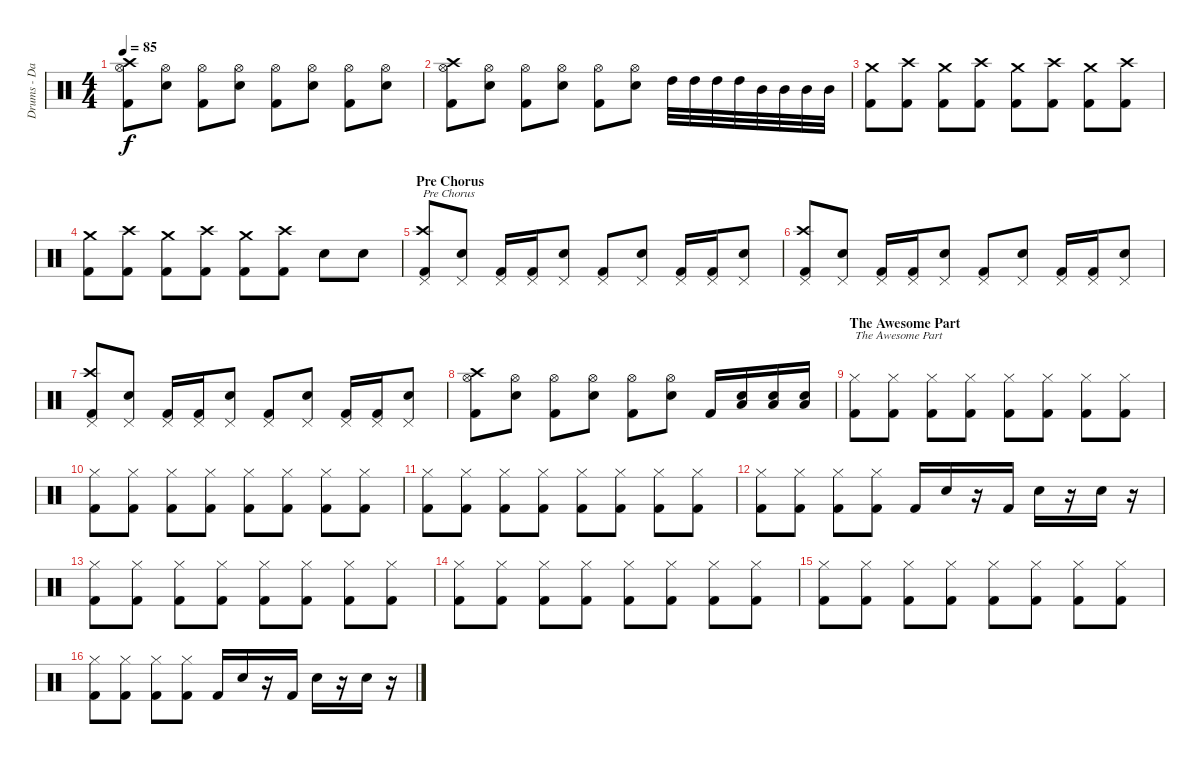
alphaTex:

\track ("Drums - Daniel Zimmermann" "Drums - Da") {instrument percussion}
\staff {score}
\articulation defaults
\ts (4 4)
\tempo 85
\clef neutral
\ks c
("Hi-Hat (open)" "Kick (hit) 2" "Crash high (hit)").8{dy f} ("Hi-Hat (open)" "Snare (hit) 2").8 ("Hi-Hat (open)" "Kick (hit) 2").8 ("Hi-Hat (open)" "Snare (hit) 2").8 ("Hi-Hat (open)" "Kick (hit) 2").8 ("Hi-Hat (open)" "Snare (hit) 2").8 ("Hi-Hat (open)" "Kick (hit) 2").8 ("Hi-Hat (open)" "Snare (hit) 2").8 |
("Hi-Hat (open)" "Kick (hit) 2" "Crash high (hit)").8 ("Hi-Hat (open)" "Snare (hit) 2").8 ("Hi-Hat (open)" "Kick (hit) 2").8 ("Hi-Hat (open)" "Snare (hit) 2").8 ("Hi-Hat (open)" "Kick (hit) 2").8 ("Hi-Hat (open)" "Snare (hit) 2").8 "High Tom (hit)".32 "High Tom (hit)".32 "High Tom (hit)".32 "High Tom (hit)".32 "Mid Tom (hit)".32 "Mid Tom (hit)".32 "Mid Tom (hit)".32 "Mid Tom (hit)".32 |
("Kick (hit) 2" "Crash medium (hit)").8 ("Kick (hit) 2" "Crash high (hit)").8 ("Kick (hit) 2" "Crash medium (hit)").8 ("Kick (hit) 2" "Crash high (hit)").8 ("Kick (hit) 2" "Crash medium (hit)").8 ("Kick (hit) 2" "Crash high (hit)").8 ("Kick (hit) 2" "Crash medium (hit)").8 ("Kick (hit) 2" "Crash high (hit)").8 |
("Kick (hit) 2" "Crash medium (hit)").8 ("Kick (hit) 2" "Crash high (hit)").8 ("Kick (hit) 2" "Crash medium (hit)").8 ("Kick (hit) 2" "Crash high (hit)").8 ("Kick (hit) 2" "Crash medium (hit)").8 ("Kick (hit) 2" "Crash high (hit)").8 "Snare (hit) 2".8 "Snare (hit) 2".8 |
\section ("" "Pre Chorus")
("Pedal Hi-Hat (hit)" "Kick (hit) 2" "Crash high (hit)").8{txt "Pre Chorus"} ("Pedal Hi-Hat (hit)" "Snare (hit) 2").8 ("Pedal Hi-Hat (hit)" "Kick (hit) 2").16 ("Pedal Hi-Hat (hit)" "Kick (hit) 2").16 ("Pedal Hi-Hat (hit)" "Snare (hit) 2").8 ("Pedal Hi-Hat (hit)" "Kick (hit) 2").8 ("Pedal Hi-Hat (hit)" "Snare (hit) 2").8 ("Pedal Hi-Hat (hit)" "Kick (hit) 2").16 ("Pedal Hi-Hat (hit)" "Kick (hit) 2").16 ("Pedal Hi-Hat (hit)" "Snare (hit) 2").8 |
("Pedal Hi-Hat (hit)" "Kick (hit) 2" "Crash high (hit)").8 ("Pedal Hi-Hat (hit)" "Snare (hit) 2").8 ("Pedal Hi-Hat (hit)" "Kick (hit) 2").16 ("Pedal Hi-Hat (hit)" "Kick (hit) 2").16 ("Pedal Hi-Hat (hit)" "Snare (hit) 2").8 ("Pedal Hi-Hat (hit)" "Kick (hit) 2").8 ("Pedal Hi-Hat (hit)" "Snare (hit) 2").8 ("Pedal Hi-Hat (hit)" "Kick (hit) 2").16 ("Pedal Hi-Hat (hit)" "Kick (hit) 2").16 ("Pedal Hi-Hat (hit)" "Snare (hit) 2").8 |
("Pedal Hi-Hat (hit)" "Kick (hit) 2" "Crash high (hit)").8 ("Pedal Hi-Hat (hit)" "Snare (hit) 2").8 ("Pedal Hi-Hat (hit)" "Kick (hit) 2").16 ("Pedal Hi-Hat (hit)" "Kick (hit) 2").16 ("Pedal Hi-Hat (hit)" "Snare (hit) 2").8 ("Pedal Hi-Hat (hit)" "Kick (hit) 2").8 ("Pedal Hi-Hat (hit)" "Snare (hit) 2").8 ("Pedal Hi-Hat (hit)" "Kick (hit) 2").16 ("Pedal Hi-Hat (hit)" "Kick (hit) 2").16 ("Pedal Hi-Hat (hit)" "Snare (hit) 2").8 |
("Hi-Hat (open)" "Kick (hit) 2" "Crash high (hit)").8 ("Hi-Hat (open)" "Snare (hit) 2").8 ("Hi-Hat (open)" "Kick (hit) 2").8 ("Hi-Hat (open)" "Snare (hit) 2").8 ("Hi-Hat (open)" "Kick (hit) 2").8 ("Hi-Hat (open)" "Snare (hit) 2").8 "Kick (hit) 2".16 ("Snare (hit) 2" "Low Floor Tom (hit)").16 ("Snare (hit) 2" "Low Floor Tom (hit)").16 ("Snare (hit) 2" "Low Floor Tom (hit)").16 |
\section ("" "The Awesome Part")
("Hi-Hat (closed)" "Kick (hit) 2").8{txt "The Awesome Part"} ("Hi-Hat (closed)" "Kick (hit) 2").8 ("Hi-Hat (closed)" "Kick (hit) 2").8 ("Hi-Hat (closed)" "Kick (hit) 2").8 ("Hi-Hat (closed)" "Kick (hit) 2").8 ("Hi-Hat (closed)" "Kick (hit) 2").8 ("Hi-Hat (closed)" "Kick (hit) 2").8 ("Hi-Hat (closed)" "Kick (hit) 2").8 |
("Hi-Hat (closed)" "Kick (hit) 2").8 ("Hi-Hat (closed)" "Kick (hit) 2").8 ("Hi-Hat (closed)" "Kick (hit) 2").8 ("Hi-Hat (closed)" "Kick (hit) 2").8 ("Hi-Hat (closed)" "Kick (hit) 2").8 ("Hi-Hat (closed)" "Kick (hit) 2").8 ("Hi-Hat (closed)" "Kick (hit) 2").8 ("Hi-Hat (closed)" "Kick (hit) 2").8 |
("Hi-Hat (closed)" "Kick (hit) 2").8 ("Hi-Hat (closed)" "Kick (hit) 2").8 ("Hi-Hat (closed)" "Kick (hit) 2").8 ("Hi-Hat (closed)" "Kick (hit) 2").8 ("Hi-Hat (closed)" "Kick (hit) 2").8 ("Hi-Hat (closed)" "Kick (hit) 2").8 ("Hi-Hat (closed)" "Kick (hit) 2").8 ("Hi-Hat (closed)" "Kick (hit) 2").8 |
("Hi-Hat (closed)" "Kick (hit) 2").8 ("Hi-Hat (closed)" "Kick (hit) 2").8 ("Hi-Hat (closed)" "Kick (hit) 2").8 ("Hi-Hat (closed)" "Kick (hit) 2").8 "Kick (hit) 2".16 "Snare (hit) 2".16 r.16 "Kick (hit) 2".16 "Snare (hit) 2".16 r.16 "Snare (hit) 2".16 r.16 |
("Hi-Hat (closed)" "Kick (hit) 2").8 ("Hi-Hat (closed)" "Kick (hit) 2").8 ("Hi-Hat (closed)" "Kick (hit) 2").8 ("Hi-Hat (closed)" "Kick (hit) 2").8 ("Hi-Hat (closed)" "Kick (hit) 2").8 ("Hi-Hat (closed)" "Kick (hit) 2").8 ("Hi-Hat (closed)" "Kick (hit) 2").8 ("Hi-Hat (closed)" "Kick (hit) 2").8 |
("Hi-Hat (closed)" "Kick (hit) 2").8 ("Hi-Hat (closed)" "Kick (hit) 2").8 ("Hi-Hat (closed)" "Kick (hit) 2").8 ("Hi-Hat (closed)" "Kick (hit) 2").8 ("Hi-Hat (closed)" "Kick (hit) 2").8 ("Hi-Hat (closed)" "Kick (hit) 2").8 ("Hi-Hat (closed)" "Kick (hit) 2").8 ("Hi-Hat (closed)" "Kick (hit) 2").8 |
("Hi-Hat (closed)" "Kick (hit) 2").8 ("Hi-Hat (closed)" "Kick (hit) 2").8 ("Hi-Hat (closed)" "Kick (hit) 2").8 ("Hi-Hat (closed)" "Kick (hit) 2").8 ("Hi-Hat (closed)" "Kick (hit) 2").8 ("Hi-Hat (closed)" "Kick (hit) 2").8 ("Hi-Hat (closed)" "Kick (hit) 2").8 ("Hi-Hat (closed)" "Kick (hit) 2").8 |
("Hi-Hat (closed)" "Kick (hit) 2").8 ("Hi-Hat (closed)" "Kick (hit) 2").8 ("Hi-Hat (closed)" "Kick (hit) 2").8 ("Hi-Hat (closed)" "Kick (hit) 2").8 "Kick (hit) 2".16 "Snare (hit) 2".16 r.16 "Kick (hit) 2".16 "Snare (hit) 2".16 r.16 "Snare (hit) 2".16 r.16
